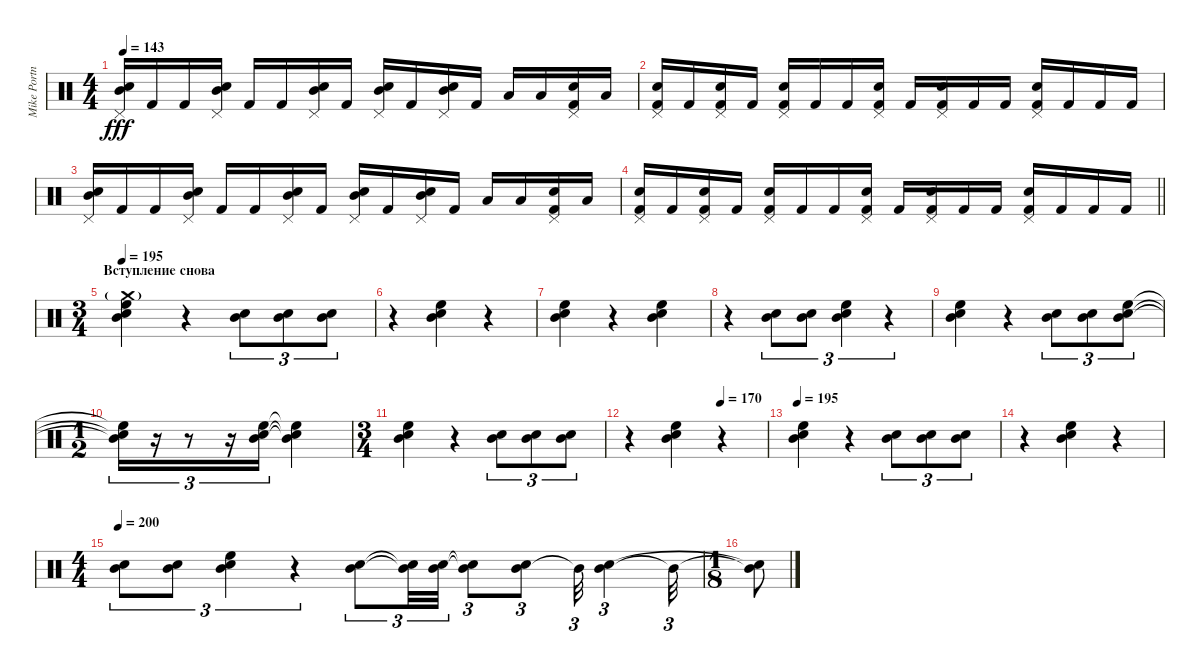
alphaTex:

\track ("Mike Portnoy" "Mike Portn") {instrument percussion}
\staff {score}
\articulation defaults
\ts (4 4)
\tempo 143
\clef neutral
\ks c
("Pedal Hi-Hat (hit)" "Electric Snare (hit)" "Mid Tom (hit)").16{dy fff} "Kick (hit) 2".16 "Kick (hit) 2".16 ("Pedal Hi-Hat (hit)" "Electric Snare (hit)" "Mid Tom (hit)").16 "Kick (hit) 2".16 "Kick (hit) 2".16 ("Pedal Hi-Hat (hit)" "Electric Snare (hit)" "Mid Tom (hit)").16 "Kick (hit) 2".16 ("Pedal Hi-Hat (hit)" "Electric Snare (hit)" "Mid Tom (hit)").16 "Kick (hit) 2".16 ("Pedal Hi-Hat (hit)" "Electric Snare (hit)" "Mid Tom (hit)").16 "Kick (hit) 2".16 "Low Tom (hit)".16 "Low Tom (hit)".16 ("Pedal Hi-Hat (hit)" "Electric Snare (hit)" "Kick (hit) 2").16 "Low Tom (hit)".16 |
("Pedal Hi-Hat (hit)" "Electric Snare (hit)" "Kick (hit) 2").16 "Kick (hit) 2".16 ("Pedal Hi-Hat (hit)" "Electric Snare (hit)" "Kick (hit) 2").16 "Kick (hit) 2".16 ("Pedal Hi-Hat (hit)" "Electric Snare (hit)" "Kick (hit) 2").16 "Kick (hit) 2".16 "Kick (hit) 2".16 ("Pedal Hi-Hat (hit)" "Electric Snare (hit)" "Kick (hit) 2").16 "Kick (hit) 2".16 ("Pedal Hi-Hat (hit)" "Electric Snare (hit)" "Kick (hit) 2").16 "Kick (hit) 2".16 "Kick (hit) 2".16 ("Pedal Hi-Hat (hit)" "Electric Snare (hit)" "Kick (hit) 2").16 "Kick (hit) 2".16 "Kick (hit) 2".16 "Kick (hit) 2".16 |
("Pedal Hi-Hat (hit)" "Electric Snare (hit)" "Mid Tom (hit)").16 "Kick (hit) 2".16 "Kick (hit) 2".16 ("Pedal Hi-Hat (hit)" "Electric Snare (hit)" "Mid Tom (hit)").16 "Kick (hit) 2".16 "Kick (hit) 2".16 ("Pedal Hi-Hat (hit)" "Electric Snare (hit)" "Mid Tom (hit)").16 "Kick (hit) 2".16 ("Pedal Hi-Hat (hit)" "Electric Snare (hit)" "Mid Tom (hit)").16 "Kick (hit) 2".16 ("Pedal Hi-Hat (hit)" "Electric Snare (hit)" "Mid Tom (hit)").16 "Kick (hit) 2".16 "Low Tom (hit)".16 "Low Tom (hit)".16 ("Pedal Hi-Hat (hit)" "Electric Snare (hit)" "Kick (hit) 2").16 "Low Tom (hit)".16 |
\barLineRight lightlight
("Pedal Hi-Hat (hit)" "Electric Snare (hit)" "Kick (hit) 2").16 "Kick (hit) 2".16 ("Pedal Hi-Hat (hit)" "Electric Snare (hit)" "Kick (hit) 2").16 "Kick (hit) 2".16 ("Pedal Hi-Hat (hit)" "Electric Snare (hit)" "Kick (hit) 2").16 "Kick (hit) 2".16 "Kick (hit) 2".16 ("Pedal Hi-Hat (hit)" "Electric Snare (hit)" "Kick (hit) 2").16 "Kick (hit) 2".16 ("Pedal Hi-Hat (hit)" "Electric Snare (hit)" "Kick (hit) 2").16 "Kick (hit) 2".16 "Kick (hit) 2".16 ("Pedal Hi-Hat (hit)" "Electric Snare (hit)" "Kick (hit) 2").16 "Kick (hit) 2".16 "Kick (hit) 2".16 "Kick (hit) 2".16 |
\ts (3 4)
\section ("" "Вступление снова")
\tempo 195
("Crash medium (hit)"{g} "Mid Tom (hit)" "Electric Snare (hit)" "High Floor Tom (hit)").4 r.4 ("Mid Tom (hit)" "Electric Snare (hit)").8{tu (3 2)} ("Mid Tom (hit)" "Electric Snare (hit)").8{tu (3 2)} ("Mid Tom (hit)" "Electric Snare (hit)").8{tu (3 2)} |
r.4 ("Mid Tom (hit)" "Electric Snare (hit)" "High Floor Tom (hit)").4 r.4 |
("Mid Tom (hit)" "Electric Snare (hit)" "High Floor Tom (hit)").4 r.4 ("Mid Tom (hit)" "Electric Snare (hit)" "High Floor Tom (hit)").4 |
r.4 ("Mid Tom (hit)" "Electric Snare (hit)").8{tu (3 2)} ("Mid Tom (hit)" "Electric Snare (hit)").8{tu (3 2)} ("Mid Tom (hit)" "Electric Snare (hit)" "High Floor Tom (hit)").4{tu (3 2)} r.4{tu (3 2)} |
("Mid Tom (hit)" "Electric Snare (hit)" "High Floor Tom (hit)").4 r.4 ("Mid Tom (hit)" "Electric Snare (hit)").8{tu (3 2)} ("Mid Tom (hit)" "Electric Snare (hit)").8{tu (3 2)} ("Mid Tom (hit)" "Electric Snare (hit)" "High Floor Tom (hit)").8{tu (3 2)} |
\ts (1 2)
("Mid Tom (hit)"{t} "Electric Snare (hit)"{t} "High Floor Tom (hit)"{t}).16{tu (3 2)} r.16{tu (3 2)} r.8{tu (3 2)} r.16{tu (3 2)} ("Mid Tom (hit)" "Electric Snare (hit)" "High Floor Tom (hit)").16{tu (3 2)} ("Mid Tom (hit)"{t} "Electric Snare (hit)"{t} "High Floor Tom (hit)"{t}).4 |
\ts (3 4)
("Mid Tom (hit)" "Electric Snare (hit)" "High Floor Tom (hit)").4 r.4 ("Mid Tom (hit)" "Electric Snare (hit)").8{tu (3 2)} ("Mid Tom (hit)" "Electric Snare (hit)").8{tu (3 2)} ("Mid Tom (hit)" "Electric Snare (hit)").8{tu (3 2)} |
\tempo (170 0.6666666666666666)
r.4 ("Mid Tom (hit)" "Electric Snare (hit)" "High Floor Tom (hit)").4 r.4 |
\tempo 195
("Mid Tom (hit)" "Electric Snare (hit)" "High Floor Tom (hit)").4 r.4 ("Mid Tom (hit)" "Electric Snare (hit)").8{tu (3 2)} ("Mid Tom (hit)" "Electric Snare (hit)").8{tu (3 2)} ("Mid Tom (hit)" "Electric Snare (hit)").8{tu (3 2)} |
r.4 ("Mid Tom (hit)" "Electric Snare (hit)" "High Floor Tom (hit)").4 r.4 |
\ts (4 4)
\tempo 200
("Mid Tom (hit)" "Electric Snare (hit)").8{tu (3 2)} ("Mid Tom (hit)" "Electric Snare (hit)").8{tu (3 2)} ("Mid Tom (hit)" "Electric Snare (hit)" "High Floor Tom (hit)").4{tu (3 2)} r.4{tu (3 2)} ("Mid Tom (hit)" "Electric Snare (hit)").8{tu (3 2)} ("Mid Tom (hit)"{t} "Electric Snare (hit)"{t}).32{tu (3 2)} ("Mid Tom (hit)" "Electric Snare (hit)").32{tu (3 2)} ("Mid Tom (hit)"{t} "Electric Snare (hit)"{t}).8{tu (3 2)} ("Mid Tom (hit)" "Electric Snare (hit)").8{tu (3 2)} "Mid Tom (hit)"{t}.32{tu (3 2)} ("Mid Tom (hit)" "Electric Snare (hit)").4{tu (3 2)} "Mid Tom (hit)"{t}.32{tu (3 2)} |
\ts (1 8)
("Mid Tom (hit)"{t} "Electric Snare (hit)"{t}).8
